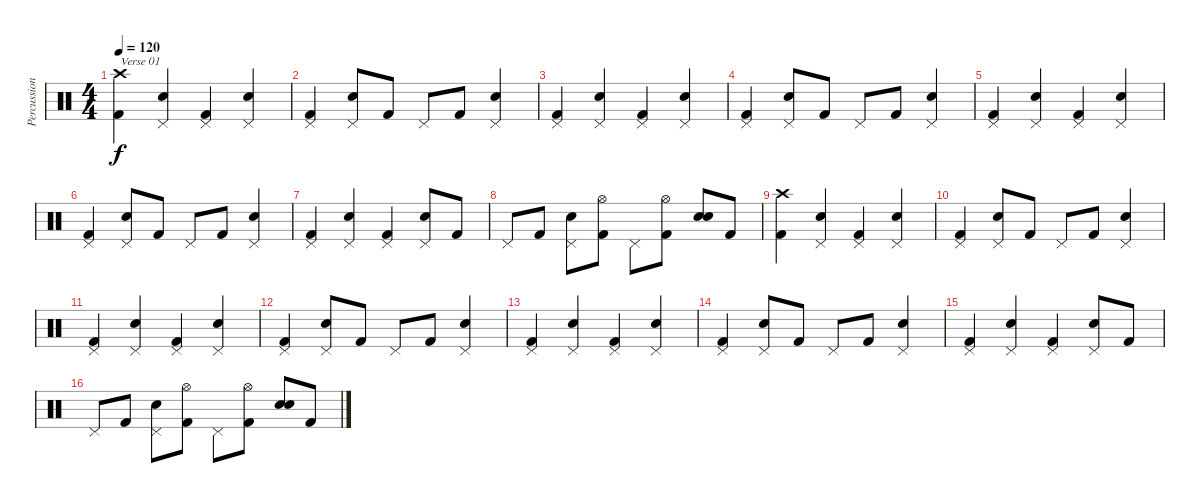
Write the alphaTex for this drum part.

\track ("Percussion" "Percussion") {instrument percussion}
\staff {score}
\articulation defaults
\ts (4 4)
\tempo 120
\clef neutral
\ks c
("Crash high (hit)" "Kick (hit) 2").4{txt "Verse 01" dy f} ("Pedal Hi-Hat (hit)" "Snare (hit) 2").4 ("Pedal Hi-Hat (hit)" "Kick (hit) 2").4 ("Pedal Hi-Hat (hit)" "Snare (hit) 2").4 |
("Pedal Hi-Hat (hit)" "Kick (hit) 2").4 ("Pedal Hi-Hat (hit)" "Snare (hit) 2").8 "Kick (hit) 2".8 "Pedal Hi-Hat (hit)".8 "Kick (hit) 2".8 ("Pedal Hi-Hat (hit)" "Snare (hit) 2").4 |
("Pedal Hi-Hat (hit)" "Kick (hit) 2").4 ("Pedal Hi-Hat (hit)" "Snare (hit) 2").4 ("Pedal Hi-Hat (hit)" "Kick (hit) 2").4 ("Pedal Hi-Hat (hit)" "Snare (hit) 2").4 |
("Pedal Hi-Hat (hit)" "Kick (hit) 2").4 ("Pedal Hi-Hat (hit)" "Snare (hit) 2").8 "Kick (hit) 2".8 "Pedal Hi-Hat (hit)".8 "Kick (hit) 2".8 ("Pedal Hi-Hat (hit)" "Snare (hit) 2").4 |
("Pedal Hi-Hat (hit)" "Kick (hit) 2").4 ("Pedal Hi-Hat (hit)" "Snare (hit) 2").4 ("Pedal Hi-Hat (hit)" "Kick (hit) 2").4 ("Pedal Hi-Hat (hit)" "Snare (hit) 2").4 |
("Pedal Hi-Hat (hit)" "Kick (hit) 2").4 ("Pedal Hi-Hat (hit)" "Snare (hit) 2").8 "Kick (hit) 2".8 "Pedal Hi-Hat (hit)".8 "Kick (hit) 2".8 ("Pedal Hi-Hat (hit)" "Snare (hit) 2").4 |
("Pedal Hi-Hat (hit)" "Kick (hit) 2").4 ("Pedal Hi-Hat (hit)" "Snare (hit) 2").4 ("Pedal Hi-Hat (hit)" "Kick (hit) 2").4 ("Pedal Hi-Hat (hit)" "Snare (hit) 2").8 "Kick (hit) 2".8 |
"Pedal Hi-Hat (hit)".8 "Kick (hit) 2".8 ("Pedal Hi-Hat (hit)" "Snare (hit) 2").8 ("Hi-Hat (open)" "Kick (hit) 2").8 "Pedal Hi-Hat (hit)".8 ("Hi-Hat (open)" "Kick (hit) 2").8 ("Snare (hit) 2" "Snare (hit) 2").8 "Kick (hit) 2".8 |
("Crash high (hit)" "Kick (hit) 2").4 ("Pedal Hi-Hat (hit)" "Snare (hit) 2").4 ("Pedal Hi-Hat (hit)" "Kick (hit) 2").4 ("Pedal Hi-Hat (hit)" "Snare (hit) 2").4 |
("Pedal Hi-Hat (hit)" "Kick (hit) 2").4 ("Pedal Hi-Hat (hit)" "Snare (hit) 2").8 "Kick (hit) 2".8 "Pedal Hi-Hat (hit)".8 "Kick (hit) 2".8 ("Pedal Hi-Hat (hit)" "Snare (hit) 2").4 |
("Pedal Hi-Hat (hit)" "Kick (hit) 2").4 ("Pedal Hi-Hat (hit)" "Snare (hit) 2").4 ("Pedal Hi-Hat (hit)" "Kick (hit) 2").4 ("Pedal Hi-Hat (hit)" "Snare (hit) 2").4 |
("Pedal Hi-Hat (hit)" "Kick (hit) 2").4 ("Pedal Hi-Hat (hit)" "Snare (hit) 2").8 "Kick (hit) 2".8 "Pedal Hi-Hat (hit)".8 "Kick (hit) 2".8 ("Pedal Hi-Hat (hit)" "Snare (hit) 2").4 |
("Pedal Hi-Hat (hit)" "Kick (hit) 2").4 ("Pedal Hi-Hat (hit)" "Snare (hit) 2").4 ("Pedal Hi-Hat (hit)" "Kick (hit) 2").4 ("Pedal Hi-Hat (hit)" "Snare (hit) 2").4 |
("Pedal Hi-Hat (hit)" "Kick (hit) 2").4 ("Pedal Hi-Hat (hit)" "Snare (hit) 2").8 "Kick (hit) 2".8 "Pedal Hi-Hat (hit)".8 "Kick (hit) 2".8 ("Pedal Hi-Hat (hit)" "Snare (hit) 2").4 |
("Pedal Hi-Hat (hit)" "Kick (hit) 2").4 ("Pedal Hi-Hat (hit)" "Snare (hit) 2").4 ("Pedal Hi-Hat (hit)" "Kick (hit) 2").4 ("Pedal Hi-Hat (hit)" "Snare (hit) 2").8 "Kick (hit) 2".8 |
"Pedal Hi-Hat (hit)".8 "Kick (hit) 2".8 ("Pedal Hi-Hat (hit)" "Snare (hit) 2").8 ("Hi-Hat (open)" "Kick (hit) 2").8 "Pedal Hi-Hat (hit)".8 ("Hi-Hat (open)" "Kick (hit) 2").8 ("Snare (hit) 2" "Snare (hit) 2").8 "Kick (hit) 2".8
